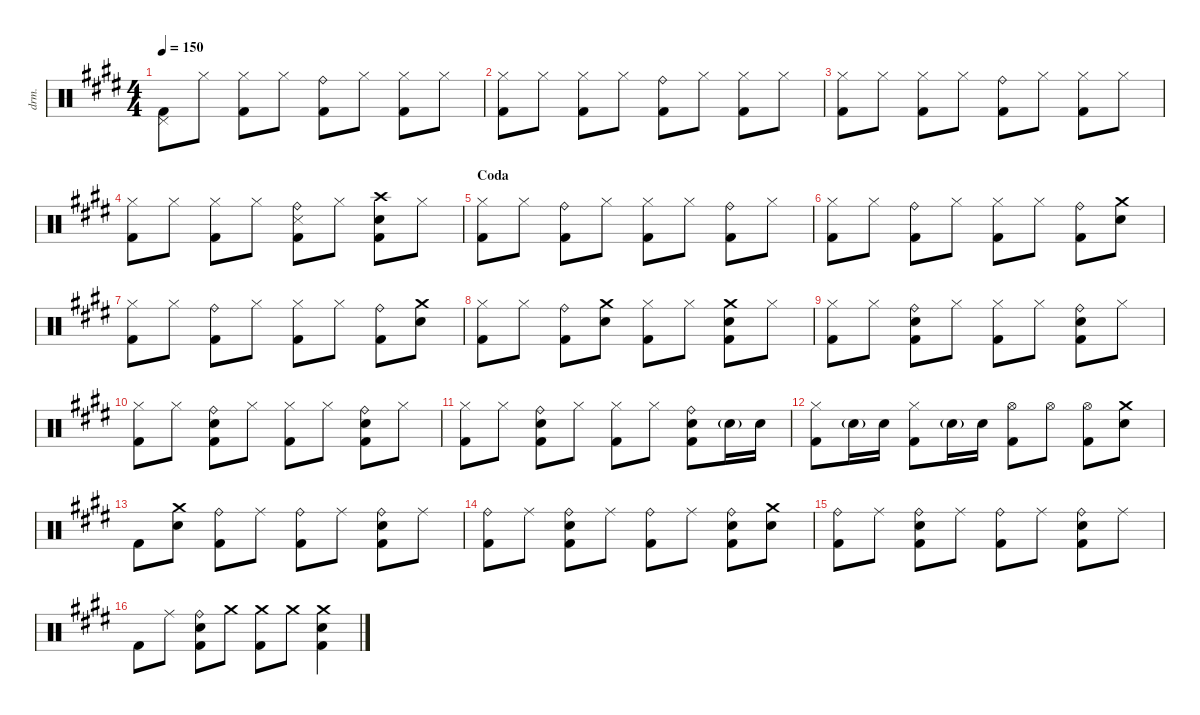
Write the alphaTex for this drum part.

\defaultSystemsLayout 4
\hideDynamics
\bracketExtendMode nobrackets
\otherSystemsTrackNameOrientation horizontal
\track ("Drums - S. Copeland" "drm.") {instrument percussion}
\staff {score}
\articulation defaults
\ts (4 4)
\tempo 150
\clef neutral
\ks c#minor
("Kick (hit) 2"{acc forcenatural} "Pedal Hi-Hat (hit)"{acc forcenatural}).8{dy mf beam Down} "Hi-Hat (closed)"{acc forcenatural}.8{beam Down} ("Hi-Hat (closed)"{acc forcenatural} "Kick (hit) 2"{acc forcenatural}).8{beam Down} "Hi-Hat (closed)"{acc forcenatural}.8{beam Down} ("Kick (hit) 2"{acc forcenatural} "Ride (bell)"{acc forcenatural}).8{beam Down} "Hi-Hat (closed)"{acc forcenatural}.8{beam Down} ("Hi-Hat (closed)"{acc forcenatural} "Kick (hit) 2"{acc forcenatural}).8{beam Down} "Hi-Hat (closed)"{acc forcenatural}.8{beam Down} |
("Hi-Hat (closed)"{acc forcenatural} "Kick (hit) 2"{acc forcenatural}).8{beam Down} "Hi-Hat (closed)"{acc forcenatural}.8{beam Down} ("Hi-Hat (closed)"{acc forcenatural} "Kick (hit) 2"{acc forcenatural}).8{beam Down} "Hi-Hat (closed)"{acc forcenatural}.8{beam Down} ("Kick (hit) 2"{acc forcenatural} "Ride (bell)"{acc forcenatural}).8{beam Down} "Hi-Hat (closed)"{acc forcenatural}.8{beam Down} ("Hi-Hat (closed)"{acc forcenatural} "Kick (hit) 2"{acc forcenatural}).8{beam Down} "Hi-Hat (closed)"{acc forcenatural}.8{beam Down} |
("Hi-Hat (closed)"{acc forcenatural} "Kick (hit) 2"{acc forcenatural}).8{beam Down} "Hi-Hat (closed)"{acc forcenatural}.8{beam Down} ("Hi-Hat (closed)"{acc forcenatural} "Kick (hit) 2"{acc forcenatural}).8{beam Down} "Hi-Hat (closed)"{acc forcenatural}.8{beam Down} ("Kick (hit) 2"{acc forcenatural} "Ride (bell)"{acc forcenatural}).8{beam Down} "Hi-Hat (closed)"{acc forcenatural}.8{beam Down} ("Hi-Hat (closed)"{acc forcenatural} "Kick (hit) 2"{acc forcenatural}).8{beam Down} "Hi-Hat (closed)"{acc forcenatural}.8{beam Down} |
("Hi-Hat (closed)"{acc forcenatural} "Kick (hit) 2"{acc forcenatural}).8{beam Down} "Hi-Hat (closed)"{acc forcenatural}.8{beam Down} ("Hi-Hat (closed)"{acc forcenatural} "Kick (hit) 2"{acc forcenatural}).8{beam Down} "Hi-Hat (closed)"{acc forcenatural}.8{beam Down} ("Kick (hit) 2"{acc forcenatural} "Ride (bell)"{acc forcenatural} "Snare (side stick) 3"{acc forcenatural}).8{beam Down} "Hi-Hat (closed)"{acc forcenatural}.8{beam Down} ("Kick (hit) 2"{acc forcenatural} "Snare (hit) 2"{acc forcenatural} "Crash high (hit)"{acc forcenatural}).8{beam Down} "Hi-Hat (closed)"{acc forcenatural}.8{beam Down} |
\section ("" "Coda")
("Hi-Hat (closed)"{acc forcenatural} "Kick (hit) 2"{acc forcenatural}).8{beam Down} "Hi-Hat (closed)"{acc forcenatural}.8{beam Down} ("Kick (hit) 2"{acc forcenatural} "Ride (bell)"{acc forcenatural}).8{beam Down} "Hi-Hat (closed)"{acc forcenatural}.8{beam Down} ("Kick (hit) 2"{acc forcenatural} "Hi-Hat (closed)"{acc forcenatural}).8{beam Down} "Hi-Hat (closed)"{acc forcenatural}.8{beam Down} ("Kick (hit) 2"{acc forcenatural} "Ride (bell)"{acc forcenatural}).8{beam Down} "Hi-Hat (closed)"{acc forcenatural}.8{beam Down} |
("Hi-Hat (closed)"{acc forcenatural} "Kick (hit) 2"{acc forcenatural}).8{beam Down} "Hi-Hat (closed)"{acc forcenatural}.8{beam Down} ("Kick (hit) 2"{acc forcenatural} "Ride (bell)"{acc forcenatural}).8{beam Down} "Hi-Hat (closed)"{acc forcenatural}.8{beam Down} ("Kick (hit) 2"{acc forcenatural} "Hi-Hat (closed)"{acc forcenatural}).8{beam Down} "Hi-Hat (closed)"{acc forcenatural}.8{beam Down} ("Kick (hit) 2"{acc forcenatural} "Ride (bell)"{acc forcenatural}).8{beam Down} ("Crash medium (hit)"{acc forcenatural} "Snare (hit) 2"{acc forcenatural}).8{beam Down} |
("Hi-Hat (closed)"{acc forcenatural} "Kick (hit) 2"{acc forcenatural}).8{beam Down} "Hi-Hat (closed)"{acc forcenatural}.8{beam Down} ("Kick (hit) 2"{acc forcenatural} "Ride (bell)"{acc forcenatural}).8{beam Down} "Hi-Hat (closed)"{acc forcenatural}.8{beam Down} ("Kick (hit) 2"{acc forcenatural} "Hi-Hat (closed)"{acc forcenatural}).8{beam Down} "Hi-Hat (closed)"{acc forcenatural}.8{beam Down} ("Kick (hit) 2"{acc forcenatural} "Ride (bell)"{acc forcenatural}).8{beam Down} ("Snare (hit) 2"{acc forcenatural} "Crash medium (hit)"{acc forcenatural}).8{beam Down} |
("Hi-Hat (closed)"{acc forcenatural} "Kick (hit) 2"{acc forcenatural}).8{beam Down} "Hi-Hat (closed)"{acc forcenatural}.8{beam Down} ("Kick (hit) 2"{acc forcenatural} "Ride (bell)"{acc forcenatural}).8{beam Down} ("Snare (hit) 2"{acc forcenatural} "Crash medium (hit)"{acc forcenatural}).8{beam Down} ("Kick (hit) 2"{acc forcenatural} "Hi-Hat (closed)"{acc forcenatural}).8{beam Down} "Hi-Hat (closed)"{acc forcenatural}.8{beam Down} ("Kick (hit) 2"{acc forcenatural} "Crash medium (hit)"{acc forcenatural} "Snare (hit) 2"{acc forcenatural}).8{beam Down} "Hi-Hat (closed)"{acc forcenatural}.8{beam Down} |
("Hi-Hat (closed)"{acc forcenatural} "Kick (hit) 2"{acc forcenatural}).8{beam Down} "Hi-Hat (closed)"{acc forcenatural}.8{beam Down} ("Kick (hit) 2"{acc forcenatural} "Ride (bell)"{acc forcenatural} "Snare (hit) 2"{acc forcenatural}).8{beam Down} "Hi-Hat (closed)"{acc forcenatural}.8{beam Down} ("Kick (hit) 2"{acc forcenatural} "Hi-Hat (closed)"{acc forcenatural}).8{beam Down} "Hi-Hat (closed)"{acc forcenatural}.8{beam Down} ("Kick (hit) 2"{acc forcenatural} "Ride (bell)"{acc forcenatural} "Snare (hit) 2"{acc forcenatural}).8{beam Down} "Hi-Hat (closed)"{acc forcenatural}.8{beam Down} |
("Hi-Hat (closed)"{acc forcenatural} "Kick (hit) 2"{acc forcenatural}).8{beam Down} "Hi-Hat (closed)"{acc forcenatural}.8{beam Down} ("Kick (hit) 2"{acc forcenatural} "Ride (bell)"{acc forcenatural} "Snare (hit) 2"{acc forcenatural}).8{beam Down} "Hi-Hat (closed)"{acc forcenatural}.8{beam Down} ("Kick (hit) 2"{acc forcenatural} "Hi-Hat (closed)"{acc forcenatural}).8{beam Down} "Hi-Hat (closed)"{acc forcenatural}.8{beam Down} ("Kick (hit) 2"{acc forcenatural} "Ride (bell)"{acc forcenatural} "Snare (hit) 2"{acc forcenatural}).8{beam Down} "Hi-Hat (closed)"{acc forcenatural}.8{beam Down} |
("Hi-Hat (closed)"{acc forcenatural} "Kick (hit) 2"{acc forcenatural}).8{beam Down} "Hi-Hat (closed)"{acc forcenatural}.8{beam Down} ("Kick (hit) 2"{acc forcenatural} "Ride (bell)"{acc forcenatural} "Snare (hit) 2"{acc forcenatural}).8{beam Down} "Hi-Hat (closed)"{acc forcenatural}.8{beam Down} ("Kick (hit) 2"{acc forcenatural} "Hi-Hat (closed)"{acc forcenatural}).8{beam Down} "Hi-Hat (closed)"{acc forcenatural}.8{beam Down} ("Kick (hit) 2"{acc forcenatural} "Ride (bell)"{acc forcenatural} "Snare (hit) 2"{acc forcenatural}).8{beam Down} "Snare (hit) 2"{g acc forcenatural}.16{beam Down} "Snare (hit) 2"{acc forcenatural}.16{beam Down} |
("Hi-Hat (closed)"{acc forcenatural} "Kick (hit) 2"{acc forcenatural}).8{beam Down} "Snare (hit) 2"{g acc forcenatural}.16{beam Down} "Snare (hit) 2"{acc forcenatural}.16{beam Down} ("Hi-Hat (closed)"{acc forcenatural} "Kick (hit) 2"{acc forcenatural}).8{beam Down} "Snare (hit) 2"{g acc forcenatural}.16{beam Down} "Snare (hit) 2"{acc forcenatural}.16{beam Down} ("Hi-Hat (open)"{acc forcenatural} "Kick (hit) 2"{acc forcenatural}).8{beam Down} "Hi-Hat (open)"{acc forcenatural}.8{beam Down} ("Hi-Hat (open)"{acc forcenatural} "Kick (hit) 2"{acc forcenatural}).8{beam Down} ("Snare (hit) 2"{acc forcenatural} "Crash medium (hit)"{acc forcenatural}).8{beam Down} |
"Kick (hit) 2"{acc forcenatural}.8{beam Down} ("Snare (hit) 2"{acc forcenatural} "Crash medium (hit)"{acc forcenatural}).8{beam Down} ("Ride (bell)"{acc forcenatural} "Kick (hit) 2"{acc forcenatural}).8{beam Down} "Ride (middle)"{acc forcenatural}.8{beam Down} ("Ride (bell)"{acc forcenatural} "Kick (hit) 2"{acc forcenatural}).8{beam Down} "Ride (middle)"{acc forcenatural}.8{beam Down} ("Ride (bell)"{acc forcenatural} "Snare (hit) 2"{acc forcenatural} "Kick (hit) 2"{acc forcenatural}).8{beam Down} "Ride (middle)"{acc forcenatural}.8{beam Down} |
("Ride (bell)"{acc forcenatural} "Kick (hit) 2"{acc forcenatural}).8{beam Down} "Ride (middle)"{acc forcenatural}.8{beam Down} ("Ride (bell)"{acc forcenatural} "Snare (hit) 2"{acc forcenatural} "Kick (hit) 2"{acc forcenatural}).8{beam Down} "Ride (middle)"{acc forcenatural}.8{beam Down} ("Ride (bell)"{acc forcenatural} "Kick (hit) 2"{acc forcenatural}).8{beam Down} "Ride (middle)"{acc forcenatural}.8{beam Down} ("Ride (bell)"{acc forcenatural} "Snare (hit) 2"{acc forcenatural} "Kick (hit) 2"{acc forcenatural}).8{beam Down} ("Snare (hit) 2"{acc forcenatural} "Crash medium (hit)"{acc forcenatural}).8{beam Down} |
("Ride (bell)"{acc forcenatural} "Kick (hit) 2"{acc forcenatural}).8{beam Down} "Ride (middle)"{acc forcenatural}.8{beam Down} ("Ride (bell)"{acc forcenatural} "Snare (hit) 2"{acc forcenatural} "Kick (hit) 2"{acc forcenatural}).8{beam Down} "Ride (middle)"{acc forcenatural}.8{beam Down} ("Ride (bell)"{acc forcenatural} "Kick (hit) 2"{acc forcenatural}).8{beam Down} "Ride (middle)"{acc forcenatural}.8{beam Down} ("Ride (bell)"{acc forcenatural} "Snare (hit) 2"{acc forcenatural} "Kick (hit) 2"{acc forcenatural}).8{beam Down} "Ride (middle)"{acc forcenatural}.8{beam Down} |
"Kick (hit) 2"{acc forcenatural}.8{beam Down} "Ride (middle)"{acc forcenatural}.8{beam Down} ("Ride (bell)"{acc forcenatural} "Snare (hit) 2"{acc forcenatural} "Kick (hit) 2"{acc forcenatural}).8{beam Down} "Crash medium (hit)"{acc forcenatural}.8{beam Down} ("Crash medium (hit)"{acc forcenatural} "Kick (hit) 2"{acc forcenatural}).8{beam Down} "Crash medium (hit)"{acc forcenatural}.8{beam Down} ("Snare (hit) 2"{acc forcenatural} "Crash medium (hit)"{acc forcenatural} "Kick (hit) 2"{acc forcenatural}).4{beam Down}
